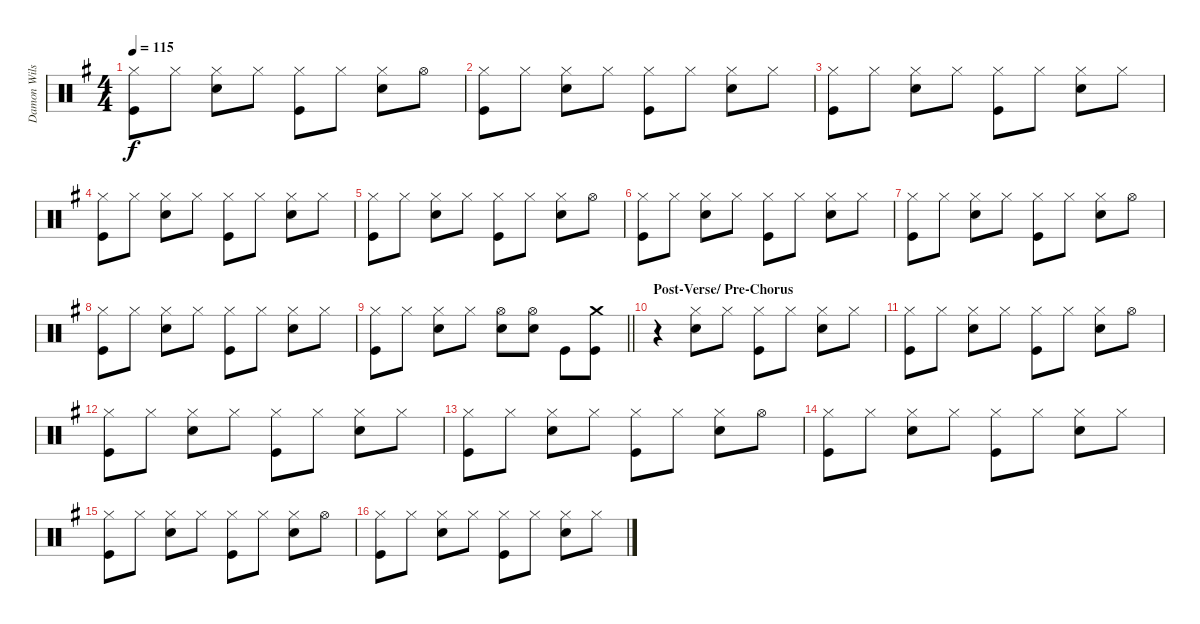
\track ("Damon Wilson" "Damon Wils") {instrument percussion}
\staff {score}
\articulation defaults
\ts (4 4)
\tempo 115
\clef neutral
\ks g
("Hi-Hat (closed)" "Kick (hit)").8{dy f} "Hi-Hat (closed)".8 ("Hi-Hat (closed)" "Electric Snare (hit)").8 "Hi-Hat (closed)".8 ("Hi-Hat (closed)" "Kick (hit)").8 "Hi-Hat (closed)".8 ("Hi-Hat (closed)" "Electric Snare (hit)").8 "Hi-Hat (open)".8 |
("Hi-Hat (closed)" "Kick (hit)").8 "Hi-Hat (closed)".8 ("Hi-Hat (closed)" "Electric Snare (hit)").8 "Hi-Hat (closed)".8 ("Hi-Hat (closed)" "Kick (hit)").8 "Hi-Hat (closed)".8 ("Hi-Hat (closed)" "Electric Snare (hit)").8 "Hi-Hat (closed)".8 |
("Hi-Hat (closed)" "Kick (hit)").8 "Hi-Hat (closed)".8 ("Hi-Hat (closed)" "Electric Snare (hit)").8 "Hi-Hat (closed)".8 ("Hi-Hat (closed)" "Kick (hit)").8 "Hi-Hat (closed)".8 ("Hi-Hat (closed)" "Electric Snare (hit)").8 "Hi-Hat (closed)".8 |
("Hi-Hat (closed)" "Kick (hit)").8 "Hi-Hat (closed)".8 ("Hi-Hat (closed)" "Electric Snare (hit)").8 "Hi-Hat (closed)".8 ("Hi-Hat (closed)" "Kick (hit)").8 "Hi-Hat (closed)".8 ("Hi-Hat (closed)" "Electric Snare (hit)").8 "Hi-Hat (closed)".8 |
("Hi-Hat (closed)" "Kick (hit)").8 "Hi-Hat (closed)".8 ("Hi-Hat (closed)" "Electric Snare (hit)").8 "Hi-Hat (closed)".8 ("Hi-Hat (closed)" "Kick (hit)").8 "Hi-Hat (closed)".8 ("Hi-Hat (closed)" "Electric Snare (hit)").8 "Hi-Hat (open)".8 |
("Hi-Hat (closed)" "Kick (hit)").8 "Hi-Hat (closed)".8 ("Hi-Hat (closed)" "Electric Snare (hit)").8 "Hi-Hat (closed)".8 ("Hi-Hat (closed)" "Kick (hit)").8 "Hi-Hat (closed)".8 ("Hi-Hat (closed)" "Electric Snare (hit)").8 "Hi-Hat (closed)".8 |
("Hi-Hat (closed)" "Kick (hit)").8 "Hi-Hat (closed)".8 ("Hi-Hat (closed)" "Electric Snare (hit)").8 "Hi-Hat (closed)".8 ("Hi-Hat (closed)" "Kick (hit)").8 "Hi-Hat (closed)".8 ("Hi-Hat (closed)" "Electric Snare (hit)").8 "Hi-Hat (open)".8 |
("Hi-Hat (closed)" "Kick (hit)").8 "Hi-Hat (closed)".8 ("Hi-Hat (closed)" "Electric Snare (hit)").8 "Hi-Hat (closed)".8 ("Hi-Hat (closed)" "Kick (hit)").8 "Hi-Hat (closed)".8 ("Hi-Hat (closed)" "Electric Snare (hit)").8 "Hi-Hat (closed)".8 |
\barLineRight lightlight
("Hi-Hat (closed)" "Kick (hit)").8 "Hi-Hat (closed)".8 ("Hi-Hat (closed)" "Electric Snare (hit)").8 "Hi-Hat (closed)".8 ("Hi-Hat (open)" "Electric Snare (hit)").8 ("Hi-Hat (open)" "Electric Snare (hit)").8 "Kick (hit)".8 ("Crash medium (hit)" "Kick (hit)").8 |
\section ("" "Post-Verse/ Pre-Chorus")
r.4 ("Hi-Hat (closed)" "Electric Snare (hit)").8 "Hi-Hat (closed)".8 ("Hi-Hat (closed)" "Kick (hit)").8 "Hi-Hat (closed)".8 ("Hi-Hat (closed)" "Electric Snare (hit)").8 "Hi-Hat (closed)".8 |
("Hi-Hat (closed)" "Kick (hit)").8 "Hi-Hat (closed)".8 ("Hi-Hat (closed)" "Electric Snare (hit)").8 "Hi-Hat (closed)".8 ("Hi-Hat (closed)" "Kick (hit)").8 "Hi-Hat (closed)".8 ("Hi-Hat (closed)" "Electric Snare (hit)").8 "Hi-Hat (open)".8 |
("Hi-Hat (closed)" "Kick (hit)").8 "Hi-Hat (closed)".8 ("Hi-Hat (closed)" "Electric Snare (hit)").8 "Hi-Hat (closed)".8 ("Hi-Hat (closed)" "Kick (hit)").8 "Hi-Hat (closed)".8 ("Hi-Hat (closed)" "Electric Snare (hit)").8 "Hi-Hat (closed)".8 |
("Hi-Hat (closed)" "Kick (hit)").8 "Hi-Hat (closed)".8 ("Hi-Hat (closed)" "Electric Snare (hit)").8 "Hi-Hat (closed)".8 ("Hi-Hat (closed)" "Kick (hit)").8 "Hi-Hat (closed)".8 ("Hi-Hat (closed)" "Electric Snare (hit)").8 "Hi-Hat (open)".8 |
("Hi-Hat (closed)" "Kick (hit)").8 "Hi-Hat (closed)".8 ("Hi-Hat (closed)" "Electric Snare (hit)").8 "Hi-Hat (closed)".8 ("Hi-Hat (closed)" "Kick (hit)").8 "Hi-Hat (closed)".8 ("Hi-Hat (closed)" "Electric Snare (hit)").8 "Hi-Hat (closed)".8 |
("Hi-Hat (closed)" "Kick (hit)").8 "Hi-Hat (closed)".8 ("Hi-Hat (closed)" "Electric Snare (hit)").8 "Hi-Hat (closed)".8 ("Hi-Hat (closed)" "Kick (hit)").8 "Hi-Hat (closed)".8 ("Hi-Hat (closed)" "Electric Snare (hit)").8 "Hi-Hat (open)".8 |
("Hi-Hat (closed)" "Kick (hit)").8 "Hi-Hat (closed)".8 ("Hi-Hat (closed)" "Electric Snare (hit)").8 "Hi-Hat (closed)".8 ("Hi-Hat (closed)" "Kick (hit)").8 "Hi-Hat (closed)".8 ("Hi-Hat (closed)" "Electric Snare (hit)").8 "Hi-Hat (closed)".8
